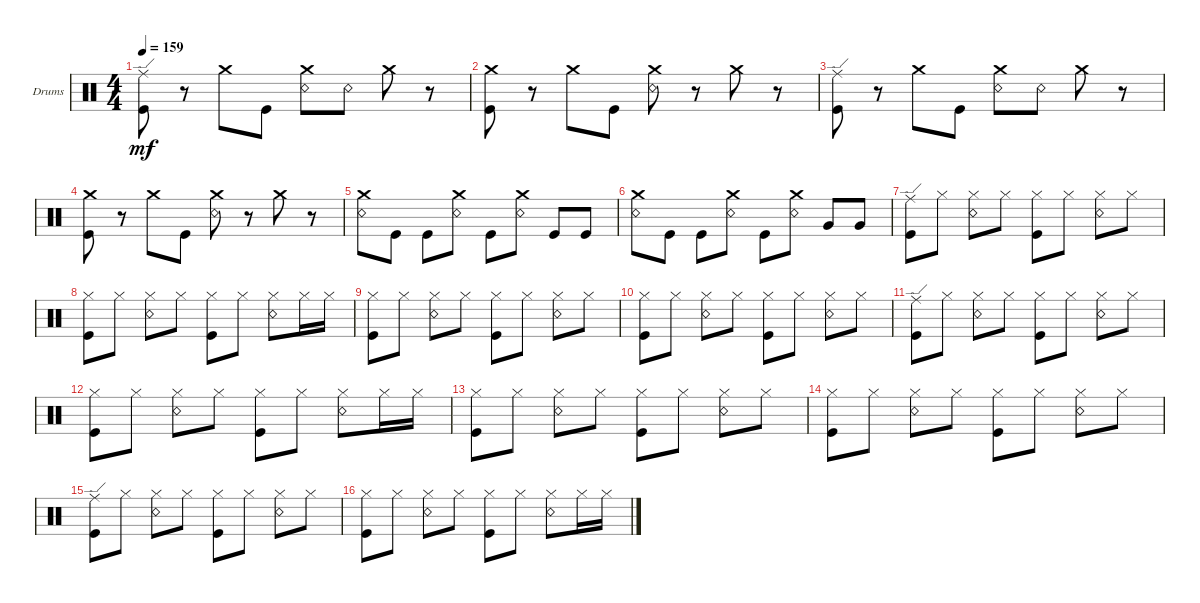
\defaultSystemsLayout 4
\bracketExtendMode groupsimilarinstruments
\firstSystemTrackNameOrientation horizontal
\otherSystemsTrackNameOrientation horizontal
\track ("Drumkit" "Drums") {instrument percussion}
\staff {score}
\articulation defaults
\ts (4 4)
\tempo 159
\clef neutral
\ks c
("Ride (edge)" "Kick (hit)").8{dy mf} r.8 "Crash medium (hit)".8 "Kick (hit)".8 ("Crash medium (hit)" "Snare (rim shot)").8 "Snare (rim shot)".8 "Crash medium (hit)".8 r.8 |
("Crash medium (hit)" "Kick (hit)").8 r.8 "Crash medium (hit)".8 "Kick (hit)".8 ("Crash medium (hit)" "Snare (rim shot)").8 r.8 "Crash medium (hit)".8 r.8 |
("Ride (edge)" "Kick (hit)").8 r.8 "Crash medium (hit)".8 "Kick (hit)".8 ("Crash medium (hit)" "Snare (rim shot)").8 "Snare (rim shot)".8 "Crash medium (hit)".8 r.8 |
("Crash medium (hit)" "Kick (hit)").8 r.8 "Crash medium (hit)".8 "Kick (hit)".8 ("Crash medium (hit)" "Snare (rim shot)").8 r.8 "Crash medium (hit)".8 r.8 |
("Snare (rim shot)" "Crash medium (hit)").8 "Kick (hit)".8 "Kick (hit)".8 ("Snare (rim shot)" "Crash medium (hit)").8 "Kick (hit)".8 ("Snare (rim shot)" "Crash medium (hit)").8 "Kick (hit)".8 "Kick (hit)".8 |
("Snare (rim shot)" "Crash medium (hit)").8 "Kick (hit)".8 "Kick (hit)".8 ("Snare (rim shot)" "Crash medium (hit)").8 "Kick (hit)".8 ("Snare (rim shot)" "Crash medium (hit)").8 "Very Low Tom (hit)".8 "Very Low Tom (hit)".8 |
("Ride (edge)" "Kick (hit)").8 "Hi-Hat (closed)".8 ("Hi-Hat (closed)" "Snare (rim shot)").8 "Hi-Hat (closed)".8 ("Hi-Hat (closed)" "Kick (hit)").8 "Hi-Hat (closed)".8 ("Hi-Hat (closed)" "Snare (rim shot)").8 "Hi-Hat (closed)".8 |
("Hi-Hat (closed)" "Kick (hit)").8 "Hi-Hat (closed)".8 ("Hi-Hat (closed)" "Snare (rim shot)").8 "Hi-Hat (closed)".8 ("Hi-Hat (closed)" "Kick (hit)").8 "Hi-Hat (closed)".8 ("Hi-Hat (closed)" "Snare (rim shot)").8 "Hi-Hat (closed)".16 "Hi-Hat (closed)".16 |
("Hi-Hat (closed)" "Kick (hit)").8 "Hi-Hat (closed)".8 ("Hi-Hat (closed)" "Snare (rim shot)").8 "Hi-Hat (closed)".8 ("Hi-Hat (closed)" "Kick (hit)").8 "Hi-Hat (closed)".8 ("Hi-Hat (closed)" "Snare (rim shot)").8 "Hi-Hat (closed)".8 |
("Hi-Hat (closed)" "Kick (hit)").8 "Hi-Hat (closed)".8 ("Hi-Hat (closed)" "Snare (rim shot)").8 "Hi-Hat (closed)".8 ("Hi-Hat (closed)" "Kick (hit)").8 "Hi-Hat (closed)".8 ("Hi-Hat (closed)" "Snare (rim shot)").8 "Hi-Hat (closed)".8 |
("Ride (edge)" "Kick (hit)").8 "Hi-Hat (closed)".8 ("Hi-Hat (closed)" "Snare (rim shot)").8 "Hi-Hat (closed)".8 ("Hi-Hat (closed)" "Kick (hit)").8 "Hi-Hat (closed)".8 ("Hi-Hat (closed)" "Snare (rim shot)").8 "Hi-Hat (closed)".8 |
("Hi-Hat (closed)" "Kick (hit)").8 "Hi-Hat (closed)".8 ("Hi-Hat (closed)" "Snare (rim shot)").8 "Hi-Hat (closed)".8 ("Hi-Hat (closed)" "Kick (hit)").8 "Hi-Hat (closed)".8 ("Hi-Hat (closed)" "Snare (rim shot)").8 "Hi-Hat (closed)".16 "Hi-Hat (closed)".16 |
("Hi-Hat (closed)" "Kick (hit)").8 "Hi-Hat (closed)".8 ("Hi-Hat (closed)" "Snare (rim shot)").8 "Hi-Hat (closed)".8 ("Hi-Hat (closed)" "Kick (hit)").8 "Hi-Hat (closed)".8 ("Hi-Hat (closed)" "Snare (rim shot)").8 "Hi-Hat (closed)".8 |
("Hi-Hat (closed)" "Kick (hit)").8 "Hi-Hat (closed)".8 ("Hi-Hat (closed)" "Snare (rim shot)").8 "Hi-Hat (closed)".8 ("Hi-Hat (closed)" "Kick (hit)").8 "Hi-Hat (closed)".8 ("Hi-Hat (closed)" "Snare (rim shot)").8 "Hi-Hat (closed)".8 |
("Ride (edge)" "Kick (hit)").8 "Hi-Hat (closed)".8 ("Hi-Hat (closed)" "Snare (rim shot)").8 "Hi-Hat (closed)".8 ("Hi-Hat (closed)" "Kick (hit)").8 "Hi-Hat (closed)".8 ("Hi-Hat (closed)" "Snare (rim shot)").8 "Hi-Hat (closed)".8 |
("Hi-Hat (closed)" "Kick (hit)").8 "Hi-Hat (closed)".8 ("Hi-Hat (closed)" "Snare (rim shot)").8 "Hi-Hat (closed)".8 ("Hi-Hat (closed)" "Kick (hit)").8 "Hi-Hat (closed)".8 ("Hi-Hat (closed)" "Snare (rim shot)").8 "Hi-Hat (closed)".16 "Hi-Hat (closed)".16
